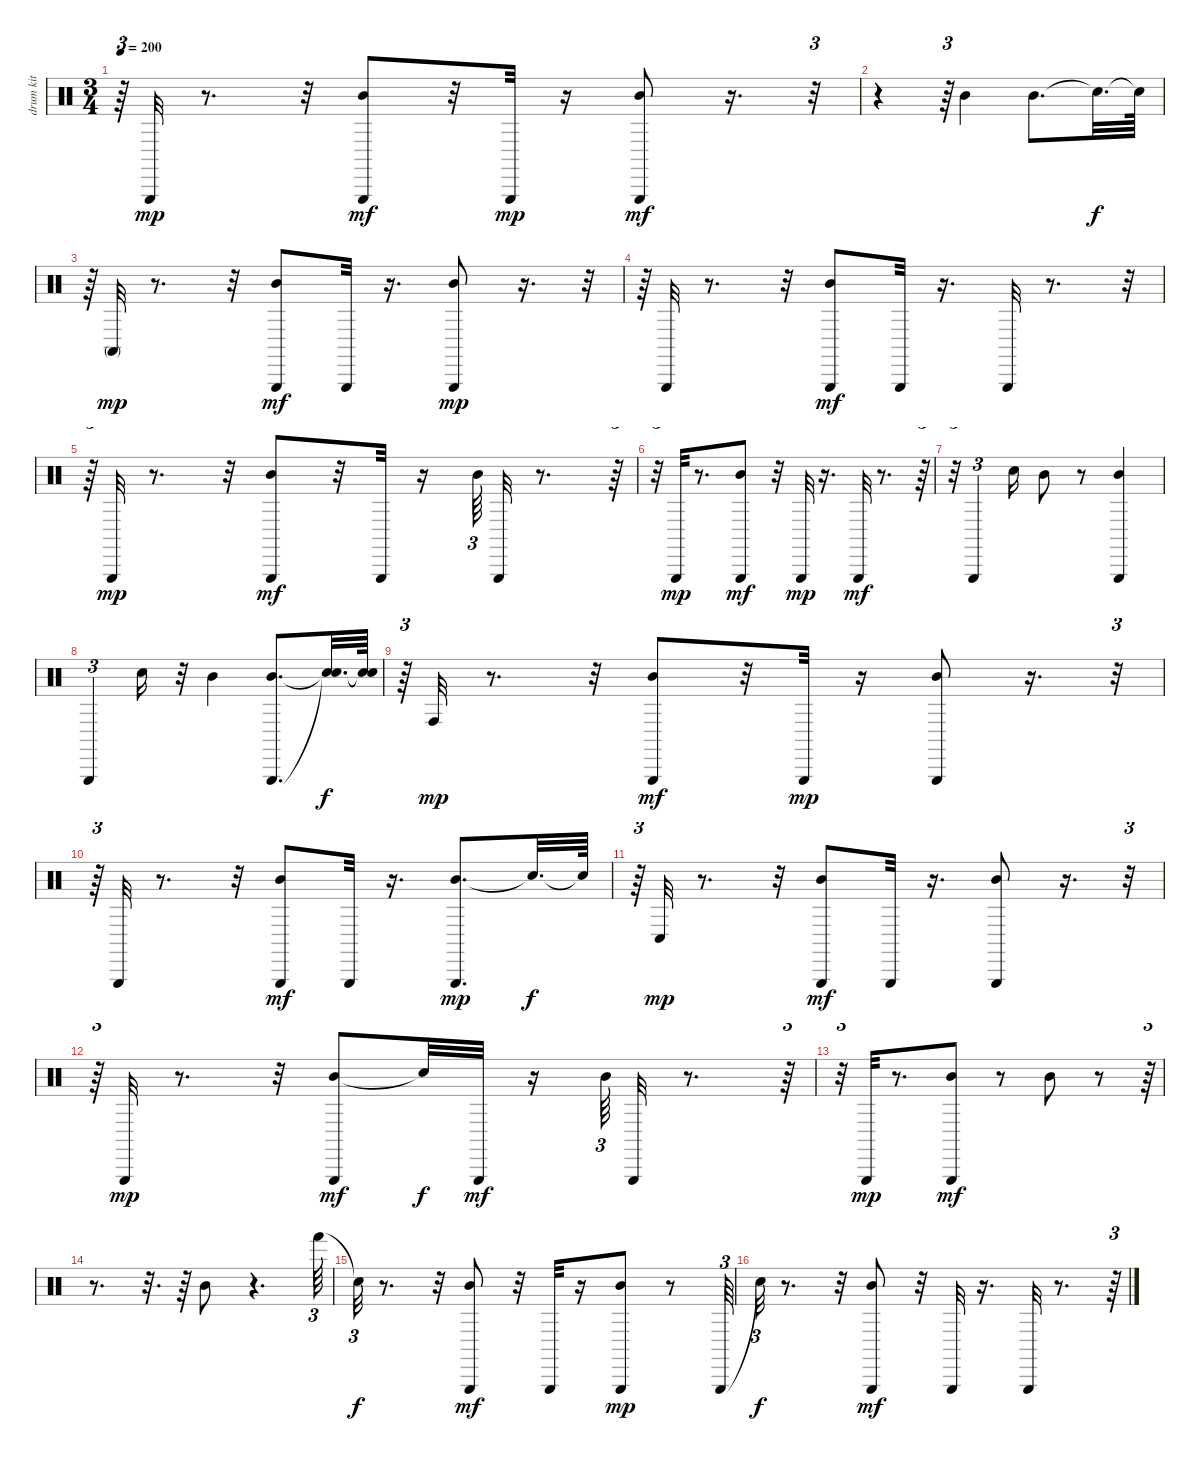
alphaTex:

\track (" drum kit (hi-hat/cymbals)" " drum kit ") {instrument percussion}
\staff {score}
\articulation defaults
\ts (3 4)
\tempo 200
\clef neutral
\ks c
r.64{tu (3 2) dy mf} "Triangle (hit)".32{dy mp} r.8{d} r.32 ("Mid Tom (hit)" "Triangle (hit)").8{dy mf} r.32 "Triangle (hit)".32{dy mp} r.16 ("Mid Tom (hit)" "Triangle (hit)").8{dy mf} r.16{d} r.32{tu (3 2)} |
r.4 r.64{tu (3 2)} "Mid Tom (hit)".4 "Mid Tom (hit)".8{d} "Snare (hit)"{t}.32{d dy f} "Snare (hit)"{t}.64 |
r.64{tu (3 2)} "Conga high (mute)".32{dy mp} r.8{d} r.32 ("Mid Tom (hit)" "Triangle (hit)").8{dy mf} "Triangle (hit)".32 r.16{d} ("Mid Tom (hit)" "Triangle (hit)").8{dy mp} r.16{d} r.32{tu (3 2)} |
r.64{tu (3 2)} "Triangle (hit)".32 r.8{d} r.32 ("Mid Tom (hit)" "Triangle (hit)").8{dy mf} "Triangle (hit)".32 r.16{d} "Triangle (hit)".32 r.8{d} r.32{tu (3 2)} |
r.64{tu (3 2)} "Triangle (hit)".32{dy mp} r.8{d} r.32 ("Mid Tom (hit)" "Triangle (hit)").8{dy mf} r.32 "Triangle (hit)".32 r.16 "Mid Tom (hit)".64{tu (3 2)} "Triangle (hit)".32 r.8{d} r.64{tu (3 2)} |
r.32{tu (3 2)} "Triangle (hit)".32{dy mp} r.8{d} ("Mid Tom (hit)" "Triangle (hit)").8{dy mf} r.32 "Triangle (hit)".32{dy mp} r.16{d} "Triangle (hit)".32{dy mf} r.8{d} r.64{tu (3 2)} |
r.32{tu (3 2)} "Triangle (hit)".4{tu (3 2)} "Snare (hit)".16 "Mid Tom (hit)".8 r.8 ("Mid Tom (hit)" "Triangle (hit)").4 |
"Triangle (hit)".4{tu (3 2)} "Snare (hit)".16 r.32 "Mid Tom (hit)".4 ("Mid Tom (hit)" "Triangle (hit)").8{d} ("Snare (hit)"{t} "Snare (hit)"{t}).32{d dy f} ("Snare (hit)"{t} "Snare (hit)"{t}).64 |
r.64{tu (3 2)} "Conga high (hit)".32{dy mp} r.8{d} r.32 ("Mid Tom (hit)" "Triangle (hit)").8{dy mf} r.32 "Triangle (hit)".32{dy mp} r.16 ("Mid Tom (hit)" "Triangle (hit)").8 r.16{d} r.32{tu (3 2)} |
r.64{tu (3 2)} "Triangle (hit)".32 r.8{d} r.32 ("Mid Tom (hit)" "Triangle (hit)").8{dy mf} "Triangle (hit)".32 r.16{d} ("Mid Tom (hit)" "Triangle (hit)").8{d dy mp} "Snare (hit)"{t}.32{d dy f} "Snare (hit)"{t}.64 |
r.64{tu (3 2)} "Conga low (hit)".32{dy mp} r.8{d} r.32 ("Mid Tom (hit)" "Triangle (hit)").8{dy mf} "Triangle (hit)".32 r.16{d} ("Mid Tom (hit)" "Triangle (hit)").8 r.16{d} r.32{tu (3 2)} |
r.64{tu (3 2)} "Triangle (hit)".32{dy mp} r.8{d} r.32 ("Mid Tom (hit)" "Triangle (hit)").8{dy mf} "Snare (hit)"{t}.32{dy f} "Triangle (hit)".32{dy mf} r.16 "Mid Tom (hit)".64{tu (3 2)} "Triangle (hit)".32 r.8{d} r.64{tu (3 2)} |
r.32{tu (3 2)} "Triangle (hit)".32{dy mp} r.8{d} ("Mid Tom (hit)" "Triangle (hit)").8{dy mf} r.8 "Mid Tom (hit)".8 r.8 r.64{tu (3 2)} |
r.8{d} r.32{d} r.64 "Mid Tom (hit)".8 r.4{d} "Hand (hit)".64{tu (3 2)} |
"Snare (hit)"{t}.32{tu (3 2) dy f} r.8{d} r.32 ("Mid Tom (hit)" "Triangle (hit)").8{dy mf} r.32 "Triangle (hit)".32 r.16 ("Mid Tom (hit)" "Triangle (hit)").8{dy mp} r.8 "Triangle (hit)".64{tu (3 2)} |
"Snare (hit)"{t}.32{tu (3 2) dy f} r.8{d} r.32 ("Mid Tom (hit)" "Triangle (hit)").8{dy mf} r.32 "Triangle (hit)".32 r.16{d} "Triangle (hit)".32 r.8{d} r.64{tu (3 2)}
